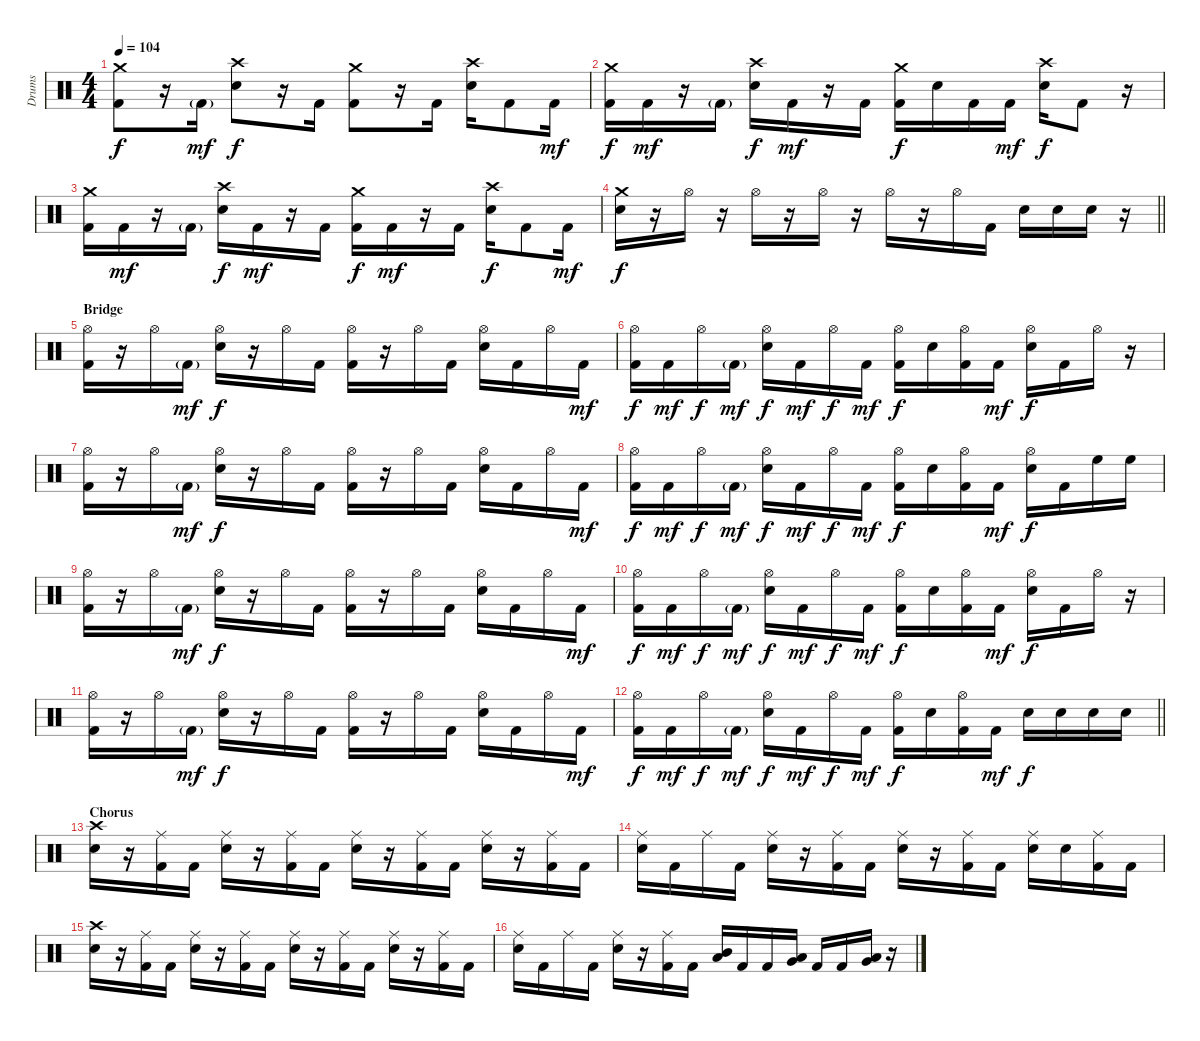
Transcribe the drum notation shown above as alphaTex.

\track ("Drums" "Drums") {instrument percussion}
\staff {score}
\articulation defaults
\ts (4 4)
\tempo 104
\clef neutral
\ks c
("Crash medium (hit)" "Kick (hit) 2").8{dy f} r.16 "Kick (hit) 2"{g}.16{dy mf} ("Crash high (hit)" "Electric Snare (hit)").8{dy f} r.16 "Kick (hit) 2".16 ("Crash medium (hit)" "Kick (hit) 2").8 r.16 "Kick (hit) 2".16 ("Crash high (hit)" "Electric Snare (hit)").16 "Kick (hit) 2".8 "Kick (hit) 2".16{dy mf} |
("Crash medium (hit)" "Kick (hit) 2").16{dy f} "Kick (hit) 2".16{dy mf} r.16 "Kick (hit) 2"{g}.16 ("Crash high (hit)" "Electric Snare (hit)").16{dy f} "Kick (hit) 2".16{dy mf} r.16 "Kick (hit) 2".16 ("Crash medium (hit)" "Kick (hit) 2").16{dy f} "Electric Snare (hit)".16 "Kick (hit) 2".16 "Kick (hit) 2".16{dy mf} ("Crash high (hit)" "Electric Snare (hit)").16{dy f} "Kick (hit) 2".8 r.16 |
("Crash medium (hit)" "Kick (hit) 2").16 "Kick (hit) 2".16{dy mf} r.16 "Kick (hit) 2"{g}.16 ("Crash high (hit)" "Electric Snare (hit)").16{dy f} "Kick (hit) 2".16{dy mf} r.16 "Kick (hit) 2".16 ("Crash medium (hit)" "Kick (hit) 2").16{dy f} "Kick (hit) 2".16{dy mf} r.16 "Kick (hit) 2".16 ("Crash high (hit)" "Electric Snare (hit)").16{dy f} "Kick (hit) 2".8 "Kick (hit) 2".16{dy mf} |
\barLineRight lightlight
("Crash medium (hit)" "Electric Snare (hit)").16{dy f} r.16 "Hi-Hat (open)".16 r.16 "Hi-Hat (open)".16 r.16 "Hi-Hat (open)".16 r.16 "Hi-Hat (open)".16 r.16 "Hi-Hat (open)".16 "Kick (hit) 2".16 "Electric Snare (hit)".16 "Electric Snare (hit)".16 "Electric Snare (hit)".16 r.16 |
\section ("" "Bridge")
("Hi-Hat (open)" "Kick (hit) 2").16 r.16 "Hi-Hat (open)".16 "Kick (hit) 2"{g}.16{dy mf} ("Hi-Hat (open)" "Electric Snare (hit)").16{dy f} r.16 "Hi-Hat (open)".16 "Kick (hit) 2".16 ("Hi-Hat (open)" "Kick (hit) 2").16 r.16 "Hi-Hat (open)".16 "Kick (hit) 2".16 ("Hi-Hat (open)" "Electric Snare (hit)").16 "Kick (hit) 2".16 "Hi-Hat (open)".16 "Kick (hit) 2".16{dy mf} |
("Hi-Hat (open)" "Kick (hit) 2").16{dy f} "Kick (hit) 2".16{dy mf} "Hi-Hat (open)".16{dy f} "Kick (hit) 2"{g}.16{dy mf} ("Hi-Hat (open)" "Electric Snare (hit)").16{dy f} "Kick (hit) 2".16{dy mf} "Hi-Hat (open)".16{dy f} "Kick (hit) 2".16{dy mf} ("Hi-Hat (open)" "Kick (hit) 2").16{dy f} "Electric Snare (hit)".16 ("Hi-Hat (open)" "Kick (hit) 2").16 "Kick (hit) 2".16{dy mf} ("Hi-Hat (open)" "Electric Snare (hit)").16{dy f} "Kick (hit) 2".16 "Hi-Hat (open)".16 r.16 |
("Hi-Hat (open)" "Kick (hit) 2").16 r.16 "Hi-Hat (open)".16 "Kick (hit) 2"{g}.16{dy mf} ("Hi-Hat (open)" "Electric Snare (hit)").16{dy f} r.16 "Hi-Hat (open)".16 "Kick (hit) 2".16 ("Hi-Hat (open)" "Kick (hit) 2").16 r.16 "Hi-Hat (open)".16 "Kick (hit) 2".16 ("Hi-Hat (open)" "Electric Snare (hit)").16 "Kick (hit) 2".16 "Hi-Hat (open)".16 "Kick (hit) 2".16{dy mf} |
("Hi-Hat (open)" "Kick (hit) 2").16{dy f} "Kick (hit) 2".16{dy mf} "Hi-Hat (open)".16{dy f} "Kick (hit) 2"{g}.16{dy mf} ("Hi-Hat (open)" "Electric Snare (hit)").16{dy f} "Kick (hit) 2".16{dy mf} "Hi-Hat (open)".16{dy f} "Kick (hit) 2".16{dy mf} ("Hi-Hat (open)" "Kick (hit) 2").16{dy f} "Electric Snare (hit)".16 ("Hi-Hat (open)" "Kick (hit) 2").16 "Kick (hit) 2".16{dy mf} ("Hi-Hat (open)" "Electric Snare (hit)").16{dy f} "Kick (hit) 2".16 "High Floor Tom (hit)".16 "High Floor Tom (hit)".16 |
("Hi-Hat (open)" "Kick (hit) 2").16 r.16 "Hi-Hat (open)".16 "Kick (hit) 2"{g}.16{dy mf} ("Hi-Hat (open)" "Electric Snare (hit)").16{dy f} r.16 "Hi-Hat (open)".16 "Kick (hit) 2".16 ("Hi-Hat (open)" "Kick (hit) 2").16 r.16 "Hi-Hat (open)".16 "Kick (hit) 2".16 ("Hi-Hat (open)" "Electric Snare (hit)").16 "Kick (hit) 2".16 "Hi-Hat (open)".16 "Kick (hit) 2".16{dy mf} |
("Hi-Hat (open)" "Kick (hit) 2").16{dy f} "Kick (hit) 2".16{dy mf} "Hi-Hat (open)".16{dy f} "Kick (hit) 2"{g}.16{dy mf} ("Hi-Hat (open)" "Electric Snare (hit)").16{dy f} "Kick (hit) 2".16{dy mf} "Hi-Hat (open)".16{dy f} "Kick (hit) 2".16{dy mf} ("Hi-Hat (open)" "Kick (hit) 2").16{dy f} "Electric Snare (hit)".16 ("Hi-Hat (open)" "Kick (hit) 2").16 "Kick (hit) 2".16{dy mf} ("Hi-Hat (open)" "Electric Snare (hit)").16{dy f} "Kick (hit) 2".16 "Hi-Hat (open)".16 r.16 |
("Hi-Hat (open)" "Kick (hit) 2").16 r.16 "Hi-Hat (open)".16 "Kick (hit) 2"{g}.16{dy mf} ("Hi-Hat (open)" "Electric Snare (hit)").16{dy f} r.16 "Hi-Hat (open)".16 "Kick (hit) 2".16 ("Hi-Hat (open)" "Kick (hit) 2").16 r.16 "Hi-Hat (open)".16 "Kick (hit) 2".16 ("Hi-Hat (open)" "Electric Snare (hit)").16 "Kick (hit) 2".16 "Hi-Hat (open)".16 "Kick (hit) 2".16{dy mf} |
\barLineRight lightlight
("Hi-Hat (open)" "Kick (hit) 2").16{dy f} "Kick (hit) 2".16{dy mf} "Hi-Hat (open)".16{dy f} "Kick (hit) 2"{g}.16{dy mf} ("Hi-Hat (open)" "Electric Snare (hit)").16{dy f} "Kick (hit) 2".16{dy mf} "Hi-Hat (open)".16{dy f} "Kick (hit) 2".16{dy mf} ("Hi-Hat (open)" "Kick (hit) 2").16{dy f} "Electric Snare (hit)".16 ("Hi-Hat (open)" "Kick (hit) 2").16 "Kick (hit) 2".16{dy mf} "Electric Snare (hit)".16{dy f} "Electric Snare (hit)".16 "Electric Snare (hit)".16 "Electric Snare (hit)".16 |
\section ("" "Chorus")
("Crash high (hit)" "Electric Snare (hit)").16 r.16 ("Ride (middle)" "Kick (hit) 2").16 "Kick (hit) 2".16 ("Ride (middle)" "Electric Snare (hit)").16 r.16 ("Ride (middle)" "Kick (hit) 2").16 "Kick (hit) 2".16 ("Ride (middle)" "Electric Snare (hit)").16 r.16 ("Ride (middle)" "Kick (hit) 2").16 "Kick (hit) 2".16 ("Ride (middle)" "Electric Snare (hit)").16 r.16 ("Ride (middle)" "Kick (hit) 2").16 "Kick (hit) 2".16 |
("Ride (middle)" "Electric Snare (hit)").16 "Kick (hit) 2".16 "Ride (middle)".16 "Kick (hit) 2".16 ("Ride (middle)" "Electric Snare (hit)").16 r.16 ("Ride (middle)" "Kick (hit) 2").16 "Kick (hit) 2".16 ("Ride (middle)" "Electric Snare (hit)").16 r.16 ("Ride (middle)" "Kick (hit) 2").16 "Kick (hit) 2".16 ("Ride (middle)" "Electric Snare (hit)").16 "Electric Snare (hit)".16 ("Ride (middle)" "Kick (hit) 2").16 "Kick (hit) 2".16 |
("Crash high (hit)" "Electric Snare (hit)").16 r.16 ("Ride (middle)" "Kick (hit) 2").16 "Kick (hit) 2".16 ("Ride (middle)" "Electric Snare (hit)").16 r.16 ("Ride (middle)" "Kick (hit) 2").16 "Kick (hit) 2".16 ("Ride (middle)" "Electric Snare (hit)").16 r.16 ("Ride (middle)" "Kick (hit) 2").16 "Kick (hit) 2".16 ("Ride (middle)" "Electric Snare (hit)").16 r.16 ("Ride (middle)" "Kick (hit) 2").16 "Kick (hit) 2".16 |
("Ride (middle)" "Electric Snare (hit)").16 "Kick (hit) 2".16 "Ride (middle)".16 "Kick (hit) 2".16 ("Ride (middle)" "Electric Snare (hit)").16 r.16 ("Ride (middle)" "Kick (hit) 2").16 "Kick (hit) 2".16 ("Mid Tom (hit)" "Low Tom (hit)").16 "Kick (hit) 2".16 "Kick (hit) 2".16 ("Low Tom (hit)" "Very Low Tom (hit)").16 "Kick (hit) 2".16 "Kick (hit) 2".16 ("Very Low Tom (hit)" "Low Floor Tom (hit)").16 r.16
